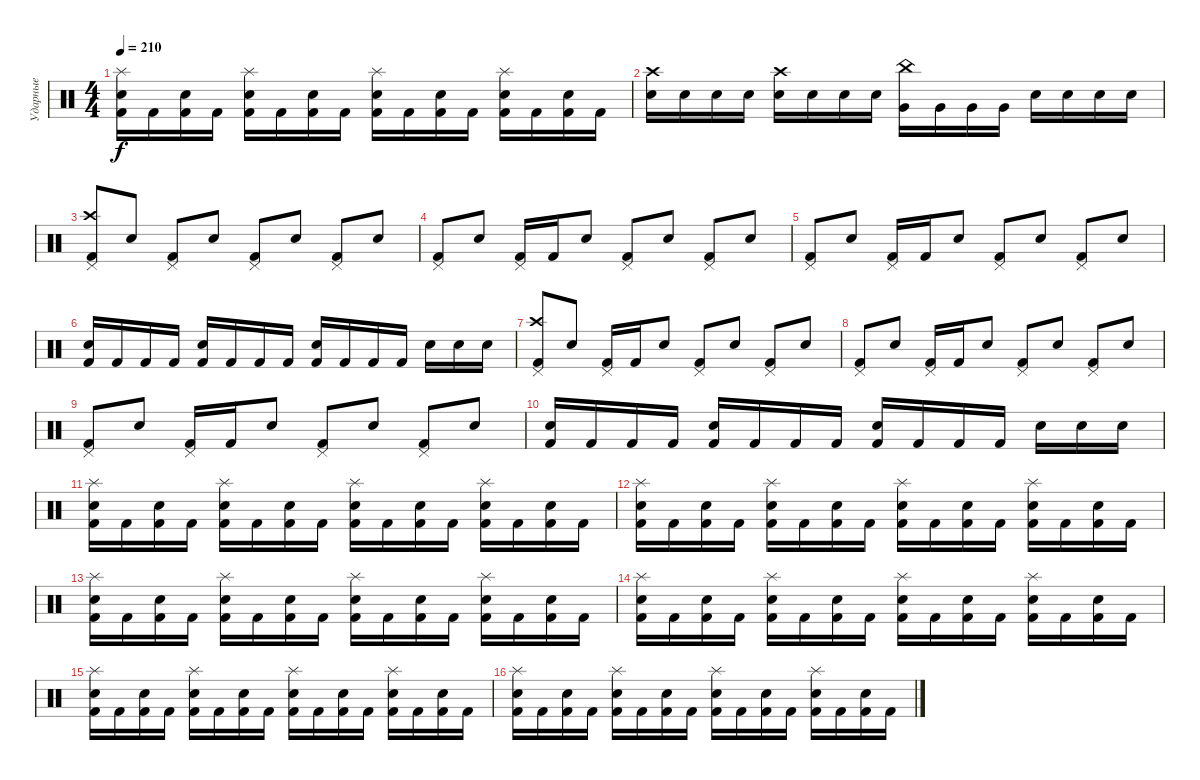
\track ("Ударные" "Ударные") {instrument percussion}
\staff {score}
\articulation defaults
\ts (4 4)
\tempo 210
\clef neutral
\ks c
("Kick (hit) 2" "Electric Snare (hit)" "Splash (hit)").16{dy f} "Kick (hit) 2".16 ("Kick (hit) 2" "Electric Snare (hit)").16 "Kick (hit) 2".16 ("Kick (hit) 2" "Electric Snare (hit)" "Splash (hit)").16 "Kick (hit) 2".16 ("Kick (hit) 2" "Electric Snare (hit)").16 "Kick (hit) 2".16 ("Kick (hit) 2" "Electric Snare (hit)" "Splash (hit)").16 "Kick (hit) 2".16 ("Kick (hit) 2" "Electric Snare (hit)").16 "Kick (hit) 2".16 ("Kick (hit) 2" "Electric Snare (hit)" "Splash (hit)").16 "Kick (hit) 2".16 ("Kick (hit) 2" "Electric Snare (hit)").16 "Kick (hit) 2".16 |
("Electric Snare (hit)" "Crash high (hit)").16 "Electric Snare (hit)".16 "Electric Snare (hit)".16 "Electric Snare (hit)".16 ("Snare (hit) 2" "Crash high (hit)").16 "Snare (hit) 2".16 "Snare (hit) 2".16 "Snare (hit) 2".16 ("Very Low Tom (hit)" "China (hit)").16 "Very Low Tom (hit)".16 "Very Low Tom (hit)".16 "Very Low Tom (hit)".16 "Snare (hit) 2".16 "Snare (hit) 2".16 "Snare (hit) 2".16 "Snare (hit) 2".16 |
("Pedal Hi-Hat (hit)" "Crash high (hit)" "Kick (hit) 2").8 "Electric Snare (hit)".8 ("Pedal Hi-Hat (hit)" "Kick (hit) 2").8 "Electric Snare (hit)".8 ("Pedal Hi-Hat (hit)" "Kick (hit) 2").8 "Electric Snare (hit)".8 ("Pedal Hi-Hat (hit)" "Kick (hit) 2").8 "Electric Snare (hit)".8 |
("Pedal Hi-Hat (hit)" "Kick (hit) 2").8 "Electric Snare (hit)".8 ("Kick (hit) 2" "Pedal Hi-Hat (hit)").16 "Kick (hit) 2".16 "Electric Snare (hit)".8 ("Kick (hit) 2" "Pedal Hi-Hat (hit)").8 "Electric Snare (hit)".8 ("Kick (hit) 2" "Pedal Hi-Hat (hit)").8 "Electric Snare (hit)".8 |
("Kick (hit) 2" "Pedal Hi-Hat (hit)").8 "Electric Snare (hit)".8 ("Kick (hit) 2" "Pedal Hi-Hat (hit)").16 "Kick (hit) 2".16 "Electric Snare (hit)".8 ("Kick (hit) 2" "Pedal Hi-Hat (hit)").8 "Electric Snare (hit)".8 ("Kick (hit) 2" "Pedal Hi-Hat (hit)").8 "Electric Snare (hit)".8 |
("Kick (hit) 2" "Electric Snare (hit)").16 "Kick (hit) 2".16 "Kick (hit) 2".16 "Kick (hit) 2".16 ("Kick (hit) 2" "Electric Snare (hit)").16 "Kick (hit) 2".16 "Kick (hit) 2".16 "Kick (hit) 2".16 ("Kick (hit) 2" "Electric Snare (hit)").16 "Kick (hit) 2".16 "Kick (hit) 2".16 "Kick (hit) 2".16 "Electric Snare (hit)".16 "Electric Snare (hit)".16 "Electric Snare (hit)".16 |
("Kick (hit) 2" "Crash high (hit)" "Pedal Hi-Hat (hit)").8 "Electric Snare (hit)".8 ("Kick (hit) 2" "Pedal Hi-Hat (hit)").16 "Kick (hit) 2".16 "Electric Snare (hit)".8 ("Kick (hit) 2" "Pedal Hi-Hat (hit)").8 "Electric Snare (hit)".8 ("Kick (hit) 2" "Pedal Hi-Hat (hit)").8 "Electric Snare (hit)".8 |
("Kick (hit) 2" "Pedal Hi-Hat (hit)").8 "Electric Snare (hit)".8 ("Kick (hit) 2" "Pedal Hi-Hat (hit)").16 "Kick (hit) 2".16 "Electric Snare (hit)".8 ("Kick (hit) 2" "Pedal Hi-Hat (hit)").8 "Electric Snare (hit)".8 ("Kick (hit) 2" "Pedal Hi-Hat (hit)").8 "Electric Snare (hit)".8 |
("Kick (hit) 2" "Pedal Hi-Hat (hit)").8 "Electric Snare (hit)".8 ("Kick (hit) 2" "Pedal Hi-Hat (hit)").16 "Kick (hit) 2".16 "Electric Snare (hit)".8 ("Kick (hit) 2" "Pedal Hi-Hat (hit)").8 "Electric Snare (hit)".8 ("Kick (hit) 2" "Pedal Hi-Hat (hit)").8 "Electric Snare (hit)".8 |
("Kick (hit) 2" "Electric Snare (hit)").16 "Kick (hit) 2".16 "Kick (hit) 2".16 "Kick (hit) 2".16 ("Kick (hit) 2" "Electric Snare (hit)").16 "Kick (hit) 2".16 "Kick (hit) 2".16 "Kick (hit) 2".16 ("Kick (hit) 2" "Electric Snare (hit)").16 "Kick (hit) 2".16 "Kick (hit) 2".16 "Kick (hit) 2".16 "Electric Snare (hit)".16 "Electric Snare (hit)".16 "Electric Snare (hit)".16 |
("Kick (hit) 2" "Electric Snare (hit)" "Splash (hit)").16 "Kick (hit) 2".16 ("Kick (hit) 2" "Electric Snare (hit)").16 "Kick (hit) 2".16 ("Kick (hit) 2" "Electric Snare (hit)" "Splash (hit)").16 "Kick (hit) 2".16 ("Kick (hit) 2" "Electric Snare (hit)").16 "Kick (hit) 2".16 ("Kick (hit) 2" "Electric Snare (hit)" "Splash (hit)").16 "Kick (hit) 2".16 ("Kick (hit) 2" "Electric Snare (hit)").16 "Kick (hit) 2".16 ("Kick (hit) 2" "Electric Snare (hit)" "Splash (hit)").16 "Kick (hit) 2".16 ("Kick (hit) 2" "Electric Snare (hit)").16 "Kick (hit) 2".16 |
("Kick (hit) 2" "Electric Snare (hit)" "Splash (hit)").16 "Kick (hit) 2".16 ("Kick (hit) 2" "Electric Snare (hit)").16 "Kick (hit) 2".16 ("Kick (hit) 2" "Electric Snare (hit)" "Splash (hit)").16 "Kick (hit) 2".16 ("Kick (hit) 2" "Electric Snare (hit)").16 "Kick (hit) 2".16 ("Kick (hit) 2" "Electric Snare (hit)" "Splash (hit)").16 "Kick (hit) 2".16 ("Kick (hit) 2" "Electric Snare (hit)").16 "Kick (hit) 2".16 ("Kick (hit) 2" "Electric Snare (hit)" "Splash (hit)").16 "Kick (hit) 2".16 ("Kick (hit) 2" "Electric Snare (hit)").16 "Kick (hit) 2".16 |
("Kick (hit) 2" "Electric Snare (hit)" "Splash (hit)").16 "Kick (hit) 2".16 ("Kick (hit) 2" "Electric Snare (hit)").16 "Kick (hit) 2".16 ("Kick (hit) 2" "Electric Snare (hit)" "Splash (hit)").16 "Kick (hit) 2".16 ("Kick (hit) 2" "Electric Snare (hit)").16 "Kick (hit) 2".16 ("Kick (hit) 2" "Electric Snare (hit)" "Splash (hit)").16 "Kick (hit) 2".16 ("Kick (hit) 2" "Electric Snare (hit)").16 "Kick (hit) 2".16 ("Kick (hit) 2" "Electric Snare (hit)" "Splash (hit)").16 "Kick (hit) 2".16 ("Kick (hit) 2" "Electric Snare (hit)").16 "Kick (hit) 2".16 |
("Kick (hit) 2" "Electric Snare (hit)" "Splash (hit)").16 "Kick (hit) 2".16 ("Kick (hit) 2" "Electric Snare (hit)").16 "Kick (hit) 2".16 ("Kick (hit) 2" "Electric Snare (hit)" "Splash (hit)").16 "Kick (hit) 2".16 ("Kick (hit) 2" "Electric Snare (hit)").16 "Kick (hit) 2".16 ("Kick (hit) 2" "Electric Snare (hit)" "Splash (hit)").16 "Kick (hit) 2".16 ("Kick (hit) 2" "Electric Snare (hit)").16 "Kick (hit) 2".16 ("Kick (hit) 2" "Electric Snare (hit)" "Splash (hit)").16 "Kick (hit) 2".16 ("Kick (hit) 2" "Electric Snare (hit)").16 "Kick (hit) 2".16 |
("Kick (hit) 2" "Electric Snare (hit)" "Splash (hit)").16 "Kick (hit) 2".16 ("Kick (hit) 2" "Electric Snare (hit)").16 "Kick (hit) 2".16 ("Kick (hit) 2" "Electric Snare (hit)" "Splash (hit)").16 "Kick (hit) 2".16 ("Kick (hit) 2" "Electric Snare (hit)").16 "Kick (hit) 2".16 ("Kick (hit) 2" "Electric Snare (hit)" "Splash (hit)").16 "Kick (hit) 2".16 ("Kick (hit) 2" "Electric Snare (hit)").16 "Kick (hit) 2".16 ("Kick (hit) 2" "Electric Snare (hit)" "Splash (hit)").16 "Kick (hit) 2".16 ("Kick (hit) 2" "Electric Snare (hit)").16 "Kick (hit) 2".16 |
("Kick (hit) 2" "Electric Snare (hit)" "Splash (hit)").16 "Kick (hit) 2".16 ("Kick (hit) 2" "Electric Snare (hit)").16 "Kick (hit) 2".16 ("Kick (hit) 2" "Electric Snare (hit)" "Splash (hit)").16 "Kick (hit) 2".16 ("Kick (hit) 2" "Electric Snare (hit)").16 "Kick (hit) 2".16 ("Kick (hit) 2" "Electric Snare (hit)" "Splash (hit)").16 "Kick (hit) 2".16 ("Kick (hit) 2" "Electric Snare (hit)").16 "Kick (hit) 2".16 ("Kick (hit) 2" "Electric Snare (hit)" "Splash (hit)").16 "Kick (hit) 2".16 ("Kick (hit) 2" "Electric Snare (hit)").16 "Kick (hit) 2".16
